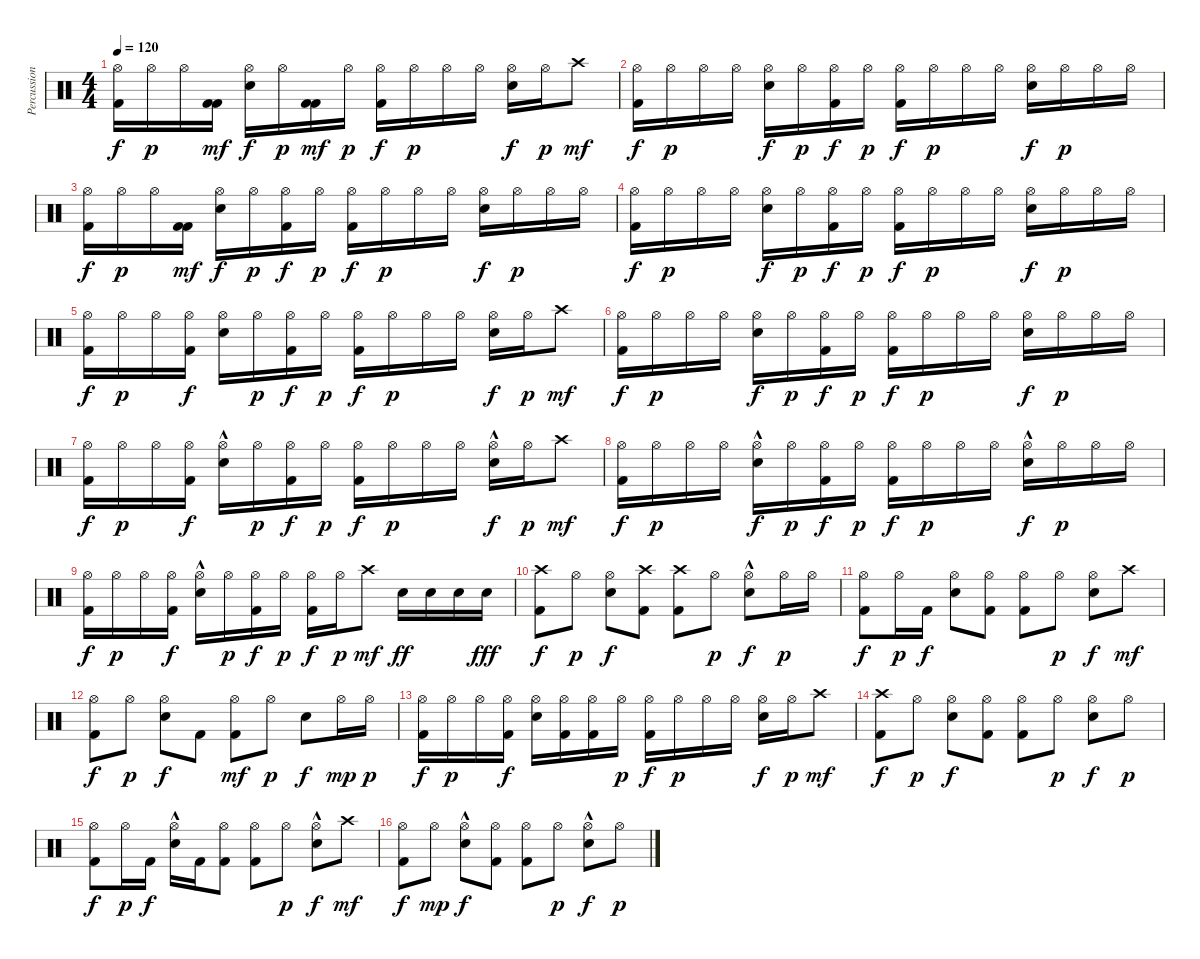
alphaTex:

\track ("Percussion" "Percussion") {instrument percussion}
\staff {score}
\articulation defaults
\ts (4 4)
\tempo 120
\clef neutral
\ks c
("Hi-Hat (open)" "Kick (hit) 2").16{dy f} "Hi-Hat (open)".16{dy p} "Hi-Hat (open)".16 ("Kick (hit) 2" "Kick (hit) 2").16{dy mf} ("Hi-Hat (open)" "Electric Snare (hit)").16{dy f} "Hi-Hat (open)".16{dy p} ("Kick (hit) 2" "Kick (hit) 2").16{dy mf} "Hi-Hat (open)".16{dy p} ("Hi-Hat (open)" "Kick (hit) 2").16{dy f} "Hi-Hat (open)".16{dy p} "Hi-Hat (open)".16 "Hi-Hat (open)".16 ("Hi-Hat (open)" "Electric Snare (hit)").16{dy f} "Hi-Hat (open)".16{dy p} "Crash high (hit)".8{dy mf} |
("Hi-Hat (open)" "Kick (hit) 2").16{dy f} "Hi-Hat (open)".16{dy p} "Hi-Hat (open)".16 "Hi-Hat (open)".16 ("Hi-Hat (open)" "Electric Snare (hit)").16{dy f} "Hi-Hat (open)".16{dy p} ("Hi-Hat (open)" "Kick (hit) 2").16{dy f} "Hi-Hat (open)".16{dy p} ("Hi-Hat (open)" "Kick (hit) 2").16{dy f} "Hi-Hat (open)".16{dy p} "Hi-Hat (open)".16 "Hi-Hat (open)".16 ("Hi-Hat (open)" "Electric Snare (hit)").16{dy f} "Hi-Hat (open)".16{dy p} "Hi-Hat (open)".16 "Hi-Hat (open)".16 |
("Hi-Hat (open)" "Kick (hit) 2").16{dy f} "Hi-Hat (open)".16{dy p} "Hi-Hat (open)".16 ("Kick (hit) 2" "Kick (hit) 2").16{dy mf} ("Hi-Hat (open)" "Electric Snare (hit)").16{dy f} "Hi-Hat (open)".16{dy p} ("Hi-Hat (open)" "Kick (hit) 2").16{dy f} "Hi-Hat (open)".16{dy p} ("Hi-Hat (open)" "Kick (hit) 2").16{dy f} "Hi-Hat (open)".16{dy p} "Hi-Hat (open)".16 "Hi-Hat (open)".16 ("Hi-Hat (open)" "Electric Snare (hit)").16{dy f} "Hi-Hat (open)".16{dy p} "Hi-Hat (open)".16 "Hi-Hat (open)".16 |
("Hi-Hat (open)" "Kick (hit) 2").16{dy f} "Hi-Hat (open)".16{dy p} "Hi-Hat (open)".16 "Hi-Hat (open)".16 ("Hi-Hat (open)" "Electric Snare (hit)").16{dy f} "Hi-Hat (open)".16{dy p} ("Hi-Hat (open)" "Kick (hit) 2").16{dy f} "Hi-Hat (open)".16{dy p} ("Hi-Hat (open)" "Kick (hit) 2").16{dy f} "Hi-Hat (open)".16{dy p} "Hi-Hat (open)".16 "Hi-Hat (open)".16 ("Hi-Hat (open)" "Electric Snare (hit)").16{dy f} "Hi-Hat (open)".16{dy p} "Hi-Hat (open)".16 "Hi-Hat (open)".16 |
("Hi-Hat (open)" "Kick (hit) 2").16{dy f} "Hi-Hat (open)".16{dy p} "Hi-Hat (open)".16 ("Hi-Hat (open)" "Kick (hit) 2").16{dy f} ("Hi-Hat (open)" "Electric Snare (hit)").16 "Hi-Hat (open)".16{dy p} ("Hi-Hat (open)" "Kick (hit) 2").16{dy f} "Hi-Hat (open)".16{dy p} ("Hi-Hat (open)" "Kick (hit) 2").16{dy f} "Hi-Hat (open)".16{dy p} "Hi-Hat (open)".16 "Hi-Hat (open)".16 ("Hi-Hat (open)" "Electric Snare (hit)").16{dy f} "Hi-Hat (open)".16{dy p} "Crash high (hit)".8{dy mf} |
("Hi-Hat (open)" "Kick (hit) 2").16{dy f} "Hi-Hat (open)".16{dy p} "Hi-Hat (open)".16 "Hi-Hat (open)".16 ("Hi-Hat (open)" "Electric Snare (hit)").16{dy f} "Hi-Hat (open)".16{dy p} ("Hi-Hat (open)" "Kick (hit) 2").16{dy f} "Hi-Hat (open)".16{dy p} ("Hi-Hat (open)" "Kick (hit) 2").16{dy f} "Hi-Hat (open)".16{dy p} "Hi-Hat (open)".16 "Hi-Hat (open)".16 ("Hi-Hat (open)" "Electric Snare (hit)").16{dy f} "Hi-Hat (open)".16{dy p} "Hi-Hat (open)".16 "Hi-Hat (open)".16 |
("Hi-Hat (open)" "Kick (hit) 2").16{dy f} "Hi-Hat (open)".16{dy p} "Hi-Hat (open)".16 ("Hi-Hat (open)" "Kick (hit) 2").16{dy f} ("Hi-Hat (open)"{hac} "Electric Snare (hit)").16 "Hi-Hat (open)".16{dy p} ("Hi-Hat (open)" "Kick (hit) 2").16{dy f} "Hi-Hat (open)".16{dy p} ("Hi-Hat (open)" "Kick (hit) 2").16{dy f} "Hi-Hat (open)".16{dy p} "Hi-Hat (open)".16 "Hi-Hat (open)".16 ("Hi-Hat (open)"{hac} "Electric Snare (hit)").16{dy f} "Hi-Hat (open)".16{dy p} "Crash high (hit)".8{dy mf} |
("Hi-Hat (open)" "Kick (hit) 2").16{dy f} "Hi-Hat (open)".16{dy p} "Hi-Hat (open)".16 "Hi-Hat (open)".16 ("Hi-Hat (open)"{hac} "Electric Snare (hit)").16{dy f} "Hi-Hat (open)".16{dy p} ("Hi-Hat (open)" "Kick (hit) 2").16{dy f} "Hi-Hat (open)".16{dy p} ("Hi-Hat (open)" "Kick (hit) 2").16{dy f} "Hi-Hat (open)".16{dy p} "Hi-Hat (open)".16 "Hi-Hat (open)".16 ("Hi-Hat (open)"{hac} "Electric Snare (hit)").16{dy f} "Hi-Hat (open)".16{dy p} "Hi-Hat (open)".16 "Hi-Hat (open)".16 |
("Hi-Hat (open)" "Kick (hit) 2").16{dy f} "Hi-Hat (open)".16{dy p} "Hi-Hat (open)".16 ("Hi-Hat (open)" "Kick (hit) 2").16{dy f} ("Hi-Hat (open)"{hac} "Electric Snare (hit)").16 "Hi-Hat (open)".16{dy p} ("Hi-Hat (open)" "Kick (hit) 2").16{dy f} "Hi-Hat (open)".16{dy p} ("Hi-Hat (open)" "Kick (hit) 2").16{dy f} "Hi-Hat (open)".16{dy p} "Crash high (hit)".8{dy mf} "Electric Snare (hit)".16{dy ff} "Electric Snare (hit)".16 "Electric Snare (hit)".16 "Electric Snare (hit)".16{dy fff} |
("Crash high (hit)" "Kick (hit) 2").8{dy f} "Hi-Hat (open)".8{dy p} ("Hi-Hat (open)" "Electric Snare (hit)").8{dy f} ("Crash high (hit)" "Kick (hit) 2").8 ("Crash high (hit)" "Kick (hit) 2").8 "Hi-Hat (open)".8{dy p} ("Hi-Hat (open)"{hac} "Electric Snare (hit)").8{dy f} "Hi-Hat (open)".16{dy p} "Hi-Hat (open)".16 |
("Hi-Hat (open)" "Kick (hit) 2").8{dy f} "Hi-Hat (open)".16{dy p} "Kick (hit) 2".16{dy f} ("Hi-Hat (open)" "Electric Snare (hit)").8 ("Hi-Hat (open)" "Kick (hit) 2").8 ("Hi-Hat (open)" "Kick (hit) 2").8 "Hi-Hat (open)".8{dy p} ("Hi-Hat (open)" "Electric Snare (hit)").8{dy f} "Crash high (hit)".8{dy mf} |
("Hi-Hat (open)" "Kick (hit) 2").8{dy f} "Hi-Hat (open)".8{dy p} ("Hi-Hat (open)" "Electric Snare (hit)").8{dy f} "Kick (hit) 2".8 ("Hi-Hat (open)" "Kick (hit) 2").8{dy mf} "Hi-Hat (open)".8{dy p} "Electric Snare (hit)".8{dy f} "Hi-Hat (open)".16{dy mp} "Hi-Hat (open)".16{dy p} |
("Hi-Hat (open)" "Kick (hit) 2").16{dy f} "Hi-Hat (open)".16{dy p} "Hi-Hat (open)".16 ("Hi-Hat (open)" "Kick (hit) 2").16{dy f} ("Hi-Hat (open)" "Electric Snare (hit)").16 ("Hi-Hat (open)" "Kick (hit) 2").16 ("Hi-Hat (open)" "Kick (hit) 2").16 "Hi-Hat (open)".16{dy p} ("Hi-Hat (open)" "Kick (hit) 2").16{dy f} "Hi-Hat (open)".16{dy p} "Hi-Hat (open)".16 "Hi-Hat (open)".16 ("Hi-Hat (open)" "Electric Snare (hit)").16{dy f} "Hi-Hat (open)".16{dy p} "Crash high (hit)".8{dy mf} |
("Crash high (hit)" "Kick (hit) 2").8{dy f} "Hi-Hat (open)".8{dy p} ("Hi-Hat (open)" "Electric Snare (hit)").8{dy f} ("Hi-Hat (open)" "Kick (hit) 2").8 ("Hi-Hat (open)" "Kick (hit) 2").8 "Hi-Hat (open)".8{dy p} ("Hi-Hat (open)" "Electric Snare (hit)").8{dy f} "Hi-Hat (open)".8{dy p} |
("Hi-Hat (open)" "Kick (hit) 2").8{dy f} "Hi-Hat (open)".16{dy p} "Kick (hit) 2".16{dy f} ("Hi-Hat (open)"{hac} "Electric Snare (hit)").16 "Kick (hit) 2".16 ("Hi-Hat (open)" "Kick (hit) 2").8 ("Hi-Hat (open)" "Kick (hit) 2").8 "Hi-Hat (open)".8{dy p} ("Hi-Hat (open)"{hac} "Electric Snare (hit)").8{dy f} "Crash high (hit)".8{dy mf} |
("Hi-Hat (open)" "Kick (hit) 2").8{dy f} "Hi-Hat (open)".8{dy mp} ("Hi-Hat (open)"{hac} "Electric Snare (hit)").8{dy f} ("Hi-Hat (open)" "Kick (hit) 2").8 ("Hi-Hat (open)" "Kick (hit) 2").8 "Hi-Hat (open)".8{dy p} ("Hi-Hat (open)"{hac} "Electric Snare (hit)").8{dy f} "Hi-Hat (open)".8{dy p}
